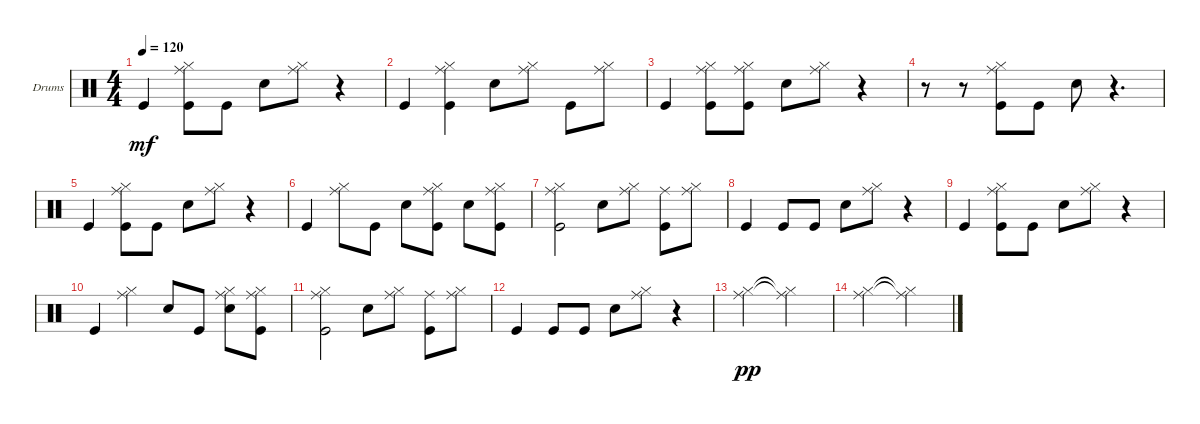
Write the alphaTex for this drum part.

\defaultSystemsLayout 4
\bracketExtendMode groupsimilarinstruments
\firstSystemTrackNameOrientation horizontal
\otherSystemsTrackNameOrientation horizontal
\track ("Drumkit" "Drums") {instrument percussion}
\staff {score}
\articulation defaults
\ts (4 4)
\tempo 120
\clef neutral
\scale
0.333333
\ks c "Kick (hit)".4{dy mf}
("Kick (hit)" "Ride (middle)" "Hi-Hat (closed)").8 "Kick (hit)".8 "Snare (hit) 2".8 ("Hi-Hat (closed)" "Ride (middle)").8 r.4 |
\scale
0.333333 "Kick (hit)".4 ("Kick (hit)" "Ride (middle)" "Hi-Hat (closed)").4 "Snare (hit) 2".8 ("Ride (middle)" "Hi-Hat (closed)").8 "Kick (hit)".8 ("Ride (middle)" "Hi-Hat (closed)").8 |
\scale
0.333333 "Kick (hit)".4 ("Kick (hit)" "Ride (middle)" "Hi-Hat (closed)").8 ("Kick (hit)" "Ride (middle)" "Hi-Hat (closed)").8 "Snare (hit) 2".8 ("Hi-Hat (closed)" "Ride (middle)").8 r.4 |
\scale
0.333333 r.8 r.8 ("Ride (middle)" "Hi-Hat (closed)" "Kick (hit)").8 "Kick (hit)".8 "Snare (hit) 2".8 r.4{d} |
\scale
0.333333 "Kick (hit)".4 ("Kick (hit)" "Ride (middle)" "Hi-Hat (closed)").8 "Kick (hit)".8 "Snare (hit) 2".8 ("Ride (middle)" "Hi-Hat (closed)").8 r.4 |
\scale
0.333333 "Kick (hit)".4 ("Ride (middle)" "Hi-Hat (closed)").8 "Kick (hit)".8 "Snare (hit) 2".8 ("Ride (middle)" "Hi-Hat (closed)" "Kick (hit)").8 "Snare (hit) 2".8 ("Ride (middle)" "Hi-Hat (closed)" "Kick (hit)").8 |
\scale
0.333333 ("Kick (hit)" "Ride (middle)" "Hi-Hat (closed)").2 "Snare (hit) 2".8 ("Hi-Hat (closed)" "Ride (middle)").8 ("Kick (hit)" "Ride (middle)").8 ("Hi-Hat (closed)" "Ride (middle)").8 |
\scale
0.333333 "Kick (hit)".4 "Kick (hit)".8 "Kick (hit)".8 "Snare (hit) 2".8 ("Hi-Hat (closed)" "Ride (middle)").8 r.4 |
\scale
0.333333 "Kick (hit)".4 ("Kick (hit)" "Ride (middle)" "Hi-Hat (closed)").8 "Kick (hit)".8 "Snare (hit) 2".8 ("Hi-Hat (closed)" "Ride (middle)").8 r.4 |
\scale
0.333333 "Kick (hit)".4 ("Ride (middle)" "Hi-Hat (closed)").4 "Snare (hit) 2".8 "Kick (hit)".8 ("Hi-Hat (closed)" "Ride (middle)" "Snare (hit) 2").8 ("Ride (middle)" "Hi-Hat (closed)" "Kick (hit)").8 |
\scale
0.333333 ("Kick (hit)" "Ride (middle)" "Hi-Hat (closed)").2 "Snare (hit) 2".8 ("Hi-Hat (closed)" "Ride (middle)").8 ("Kick (hit)" "Ride (middle)").8 ("Hi-Hat (closed)" "Ride (middle)").8 |
\scale
0.333333 "Kick (hit)".4 "Kick (hit)".8 "Kick (hit)".8 "Snare (hit) 2".8 ("Hi-Hat (closed)" "Ride (middle)").8 r.4 |
\scale
0.333333 ("Ride (middle)" "Hi-Hat (closed)").2{dy pp} ("Ride (middle)"{t} "Hi-Hat (closed)"{t}).2 |
\scale
0.333333 ("Ride (middle)" "Hi-Hat (closed)").2 ("Ride (middle)"{t} "Hi-Hat (closed)"{t}).2 |
\scale
0.333333 |
\scale
0.333333
